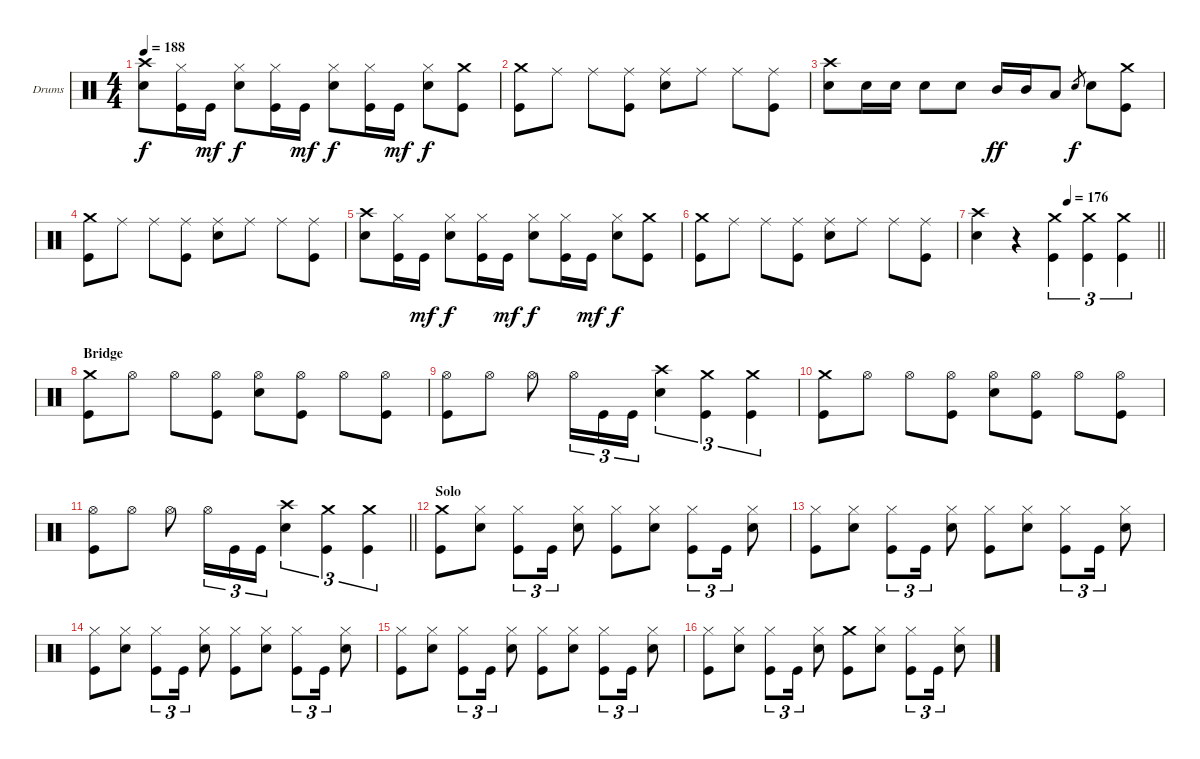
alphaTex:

\bracketExtendMode groupsimilarinstruments
\firstSystemTrackNameOrientation horizontal
\otherSystemsTrackNameOrientation horizontal
\track ("Drums" "Drums") {instrument percussion}
\staff {score}
\articulation defaults
\ts (4 4)
\tempo 188
\clef neutral
\ks c
("Snare (hit) 2" "Crash high (hit)").8{dy f} ("Hi-Hat (closed)" "Kick (hit)").16 "Kick (hit)".16{dy mf} ("Snare (hit) 2" "Hi-Hat (closed)").8{dy f} ("Hi-Hat (closed)" "Kick (hit)").16 "Kick (hit)".16{dy mf} ("Snare (hit) 2" "Hi-Hat (closed)").8{dy f} ("Hi-Hat (closed)" "Kick (hit)").16 "Kick (hit)".16{dy mf} ("Snare (hit) 2" "Hi-Hat (closed)").8{dy f} ("Kick (hit)" "Crash medium (hit)").8 |
("Kick (hit)" "Crash medium (hit)").8 "Ride (middle)".8 "Ride (middle)".8 ("Kick (hit)" "Ride (middle)").8 ("Snare (hit) 2" "Ride (middle)").8 "Ride (middle)".8 "Ride (middle)".8 ("Ride (middle)" "Kick (hit)").8 |
("Snare (hit) 2" "Crash high (hit)").8 "Snare (hit) 2".16 "Snare (hit) 2".16 "Snare (hit) 2".8 "Snare (hit) 2".8 "Mid Tom (hit)".16{dy ff} "Mid Tom (hit)".16 "Low Tom (hit)".8 "Snare (hit) 2".8{gr dy f} "Snare (hit) 2".8 ("Kick (hit)" "Crash medium (hit)").8 |
("Kick (hit)" "Crash medium (hit)").8 "Ride (middle)".8 "Ride (middle)".8 ("Kick (hit)" "Ride (middle)").8 ("Snare (hit) 2" "Ride (middle)").8 "Ride (middle)".8 "Ride (middle)".8 ("Ride (middle)" "Kick (hit)").8 |
("Snare (hit) 2" "Crash high (hit)").8 ("Hi-Hat (closed)" "Kick (hit)").16 "Kick (hit)".16{dy mf} ("Snare (hit) 2" "Hi-Hat (closed)").8{dy f} ("Hi-Hat (closed)" "Kick (hit)").16 "Kick (hit)".16{dy mf} ("Snare (hit) 2" "Hi-Hat (closed)").8{dy f} ("Hi-Hat (closed)" "Kick (hit)").16 "Kick (hit)".16{dy mf} ("Snare (hit) 2" "Hi-Hat (closed)").8{dy f} ("Kick (hit)" "Crash medium (hit)").8 |
("Kick (hit)" "Crash medium (hit)").8 "Ride (middle)".8 "Ride (middle)".8 ("Kick (hit)" "Ride (middle)").8 ("Snare (hit) 2" "Ride (middle)").8 "Ride (middle)".8 "Ride (middle)".8 ("Ride (middle)" "Kick (hit)").8 |
\tempo (176 0.5)
\barLineRight lightlight
("Snare (hit) 2" "Crash high (hit)").4 r.4 ("Kick (hit)" "Crash medium (hit)").4{tu (3 2)} ("Kick (hit)" "Crash medium (hit)").4{tu (3 2)} ("Kick (hit)" "Crash medium (hit)").4{tu (3 2)} |
\section ("" "Bridge")
("Kick (hit)" "Crash medium (hit)").8 "Hi-Hat (open)".8 "Hi-Hat (open)".8 ("Hi-Hat (open)" "Kick (hit)").8 ("Snare (hit) 2" "Hi-Hat (open)").8 ("Hi-Hat (open)" "Kick (hit)").8 "Hi-Hat (open)".8 ("Hi-Hat (open)" "Kick (hit)").8 |
("Kick (hit)" "Hi-Hat (open)").8 "Hi-Hat (open)".8 "Hi-Hat (open)".8 "Hi-Hat (open)".16{tu (3 2)} "Kick (hit)".16{tu (3 2)} "Kick (hit)".16{tu (3 2)} ("Snare (hit) 2" "Crash high (hit)").4{tu (3 2)} ("Kick (hit)" "Crash medium (hit)").4{tu (3 2)} ("Kick (hit)" "Crash medium (hit)").4{tu (3 2)} |
("Kick (hit)" "Crash medium (hit)").8 "Hi-Hat (open)".8 "Hi-Hat (open)".8 ("Hi-Hat (open)" "Kick (hit)").8 ("Snare (hit) 2" "Hi-Hat (open)").8 ("Hi-Hat (open)" "Kick (hit)").8 "Hi-Hat (open)".8 ("Hi-Hat (open)" "Kick (hit)").8 |
\barLineRight lightlight
("Kick (hit)" "Hi-Hat (open)").8 "Hi-Hat (open)".8 "Hi-Hat (open)".8 "Hi-Hat (open)".16{tu (3 2)} "Kick (hit)".16{tu (3 2)} "Kick (hit)".16{tu (3 2)} ("Snare (hit) 2" "Crash high (hit)").4{tu (3 2)} ("Kick (hit)" "Crash medium (hit)").4{tu (3 2)} ("Kick (hit)" "Crash medium (hit)").4{tu (3 2)} |
\section ("" "Solo")
("Kick (hit)" "Crash medium (hit)").8 ("Snare (hit) 2" "Hi-Hat (closed)").8 ("Kick (hit)" "Hi-Hat (closed)").8{tu (3 2)} "Kick (hit)".16{tu (3 2)} ("Snare (hit) 2" "Hi-Hat (closed)").8 ("Kick (hit)" "Hi-Hat (closed)").8 ("Snare (hit) 2" "Hi-Hat (closed)").8 ("Kick (hit)" "Hi-Hat (closed)").8{tu (3 2)} "Kick (hit)".16{tu (3 2)} ("Snare (hit) 2" "Hi-Hat (closed)").8 |
("Kick (hit)" "Hi-Hat (closed)").8 ("Snare (hit) 2" "Hi-Hat (closed)").8 ("Kick (hit)" "Hi-Hat (closed)").8{tu (3 2)} "Kick (hit)".16{tu (3 2)} ("Snare (hit) 2" "Hi-Hat (closed)").8 ("Kick (hit)" "Hi-Hat (closed)").8 ("Snare (hit) 2" "Hi-Hat (closed)").8 ("Kick (hit)" "Hi-Hat (closed)").8{tu (3 2)} "Kick (hit)".16{tu (3 2)} ("Snare (hit) 2" "Hi-Hat (closed)").8 |
("Kick (hit)" "Hi-Hat (closed)").8 ("Snare (hit) 2" "Hi-Hat (closed)").8 ("Kick (hit)" "Hi-Hat (closed)").8{tu (3 2)} "Kick (hit)".16{tu (3 2)} ("Snare (hit) 2" "Hi-Hat (closed)").8 ("Kick (hit)" "Hi-Hat (closed)").8 ("Snare (hit) 2" "Hi-Hat (closed)").8 ("Kick (hit)" "Hi-Hat (closed)").8{tu (3 2)} "Kick (hit)".16{tu (3 2)} ("Snare (hit) 2" "Hi-Hat (closed)").8 |
("Kick (hit)" "Hi-Hat (closed)").8 ("Snare (hit) 2" "Hi-Hat (closed)").8 ("Kick (hit)" "Hi-Hat (closed)").8{tu (3 2)} "Kick (hit)".16{tu (3 2)} ("Snare (hit) 2" "Hi-Hat (closed)").8 ("Kick (hit)" "Hi-Hat (closed)").8 ("Snare (hit) 2" "Hi-Hat (closed)").8 ("Kick (hit)" "Hi-Hat (closed)").8{tu (3 2)} "Kick (hit)".16{tu (3 2)} ("Snare (hit) 2" "Hi-Hat (closed)").8 |
("Kick (hit)" "Hi-Hat (closed)").8 ("Snare (hit) 2" "Hi-Hat (closed)").8 ("Kick (hit)" "Hi-Hat (closed)").8{tu (3 2)} "Kick (hit)".16{tu (3 2)} ("Snare (hit) 2" "Hi-Hat (closed)").8 ("Kick (hit)" "Crash medium (hit)").8 ("Snare (hit) 2" "Hi-Hat (closed)").8 ("Kick (hit)" "Hi-Hat (closed)").8{tu (3 2)} "Kick (hit)".16{tu (3 2)} ("Snare (hit) 2" "Hi-Hat (closed)").8
